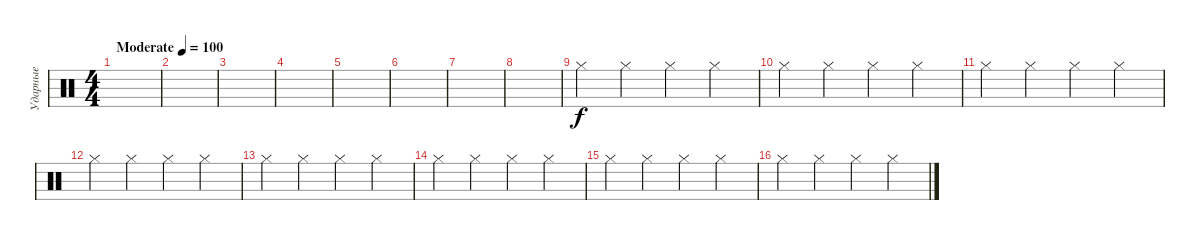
\track ("Ударные" "Ударные") {instrument percussion}
\staff {score}
\articulation defaults
\ts (4 4)
\tempo (100 "Moderate")
\clef neutral
\ks c
|
|
|
|
|
|
|
|
"Hi-Hat (closed)".4 "Hi-Hat (closed)".4 "Hi-Hat (closed)".4 "Hi-Hat (closed)".4 |
"Hi-Hat (closed)".4 "Hi-Hat (closed)".4 "Hi-Hat (closed)".4 "Hi-Hat (closed)".4 |
"Hi-Hat (closed)".4 "Hi-Hat (closed)".4 "Hi-Hat (closed)".4 "Hi-Hat (closed)".4 |
"Hi-Hat (closed)".4 "Hi-Hat (closed)".4 "Hi-Hat (closed)".4 "Hi-Hat (closed)".4 |
"Hi-Hat (closed)".4 "Hi-Hat (closed)".4 "Hi-Hat (closed)".4 "Hi-Hat (closed)".4 |
"Hi-Hat (closed)".4 "Hi-Hat (closed)".4 "Hi-Hat (closed)".4 "Hi-Hat (closed)".4 |
"Hi-Hat (closed)".4 "Hi-Hat (closed)".4 "Hi-Hat (closed)".4 "Hi-Hat (closed)".4 |
"Hi-Hat (closed)".4 "Hi-Hat (closed)".4 "Hi-Hat (closed)".4 "Hi-Hat (closed)".4
